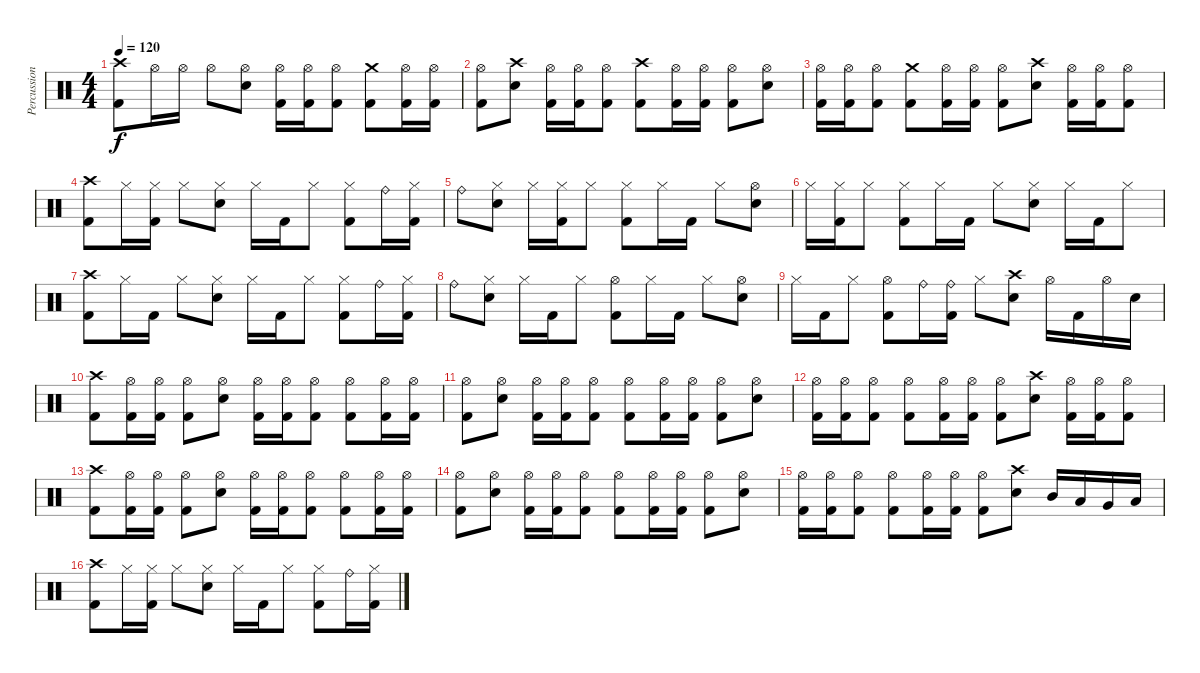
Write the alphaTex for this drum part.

\track ("Percussion" "Percussion") {instrument percussion}
\staff {score}
\articulation defaults
\ts (4 4)
\tempo 120
\clef neutral
\ks c
("Crash high (hit)" "Kick (hit) 2").8{dy f} "Hi-Hat (open)".16 "Hi-Hat (open)".16 "Hi-Hat (open)".8 ("Hi-Hat (open)" "Snare (hit) 2").8 ("Hi-Hat (open)" "Kick (hit) 2").16 ("Hi-Hat (open)" "Kick (hit) 2").16 ("Hi-Hat (open)" "Kick (hit) 2").8 ("Crash medium (hit)" "Kick (hit) 2").8 ("Hi-Hat (open)" "Kick (hit) 2").16 ("Hi-Hat (open)" "Kick (hit) 2").16 |
("Hi-Hat (open)" "Kick (hit) 2").8 ("Crash high (hit)" "Snare (hit) 2").8 ("Hi-Hat (open)" "Kick (hit) 2").16 ("Hi-Hat (open)" "Kick (hit) 2").16 ("Hi-Hat (open)" "Kick (hit) 2").8 ("Crash high (hit)" "Kick (hit) 2").8 ("Hi-Hat (open)" "Kick (hit) 2").16 ("Hi-Hat (open)" "Kick (hit) 2").16 ("Hi-Hat (open)" "Kick (hit) 2").8 ("Hi-Hat (open)" "Snare (hit) 2").8 |
("Hi-Hat (open)" "Kick (hit) 2").16 ("Hi-Hat (open)" "Kick (hit) 2").16 ("Hi-Hat (open)" "Kick (hit) 2").8 ("Crash medium (hit)" "Kick (hit) 2").8 ("Hi-Hat (open)" "Kick (hit) 2").16 ("Hi-Hat (open)" "Kick (hit) 2").16 ("Hi-Hat (open)" "Kick (hit) 2").8 ("Crash high (hit)" "Snare (hit) 2").8 ("Hi-Hat (open)" "Kick (hit) 2").16 ("Hi-Hat (open)" "Kick (hit) 2").16 ("Hi-Hat (open)" "Kick (hit) 2").8 |
("Crash high (hit)" "Kick (hit) 2").8 "Hi-Hat (closed)".16 ("Hi-Hat (closed)" "Kick (hit) 2").16 "Hi-Hat (closed)".8 ("Hi-Hat (closed)" "Snare (hit) 2").8 "Hi-Hat (closed)".16 "Kick (hit) 2".16 "Hi-Hat (closed)".8 ("Hi-Hat (closed)" "Kick (hit) 2").8 "Ride (bell)".16 ("Hi-Hat (closed)" "Kick (hit) 2").16 |
"Ride (bell)".8 ("Hi-Hat (closed)" "Snare (hit) 2").8 "Hi-Hat (closed)".16 ("Hi-Hat (closed)" "Kick (hit) 2").16 "Hi-Hat (closed)".8 ("Hi-Hat (closed)" "Kick (hit) 2").8 "Hi-Hat (closed)".16 "Kick (hit) 2".16 "Hi-Hat (closed)".8 ("Hi-Hat (open)" "Snare (hit) 2").8 |
"Hi-Hat (closed)".16 ("Hi-Hat (closed)" "Kick (hit) 2").16 "Hi-Hat (closed)".8 ("Hi-Hat (closed)" "Kick (hit) 2").8 "Hi-Hat (closed)".16 "Kick (hit) 2".16 "Hi-Hat (closed)".8 ("Hi-Hat (closed)" "Snare (hit) 2").8 "Hi-Hat (closed)".16 "Kick (hit) 2".16 "Hi-Hat (closed)".8 |
("Crash high (hit)" "Kick (hit) 2").8 "Hi-Hat (closed)".16 "Kick (hit) 2".16 "Hi-Hat (closed)".8 ("Hi-Hat (closed)" "Snare (hit) 2").8 "Hi-Hat (closed)".16 "Kick (hit) 2".16 "Hi-Hat (closed)".8 ("Hi-Hat (closed)" "Kick (hit) 2").8 "Ride (bell)".16 ("Hi-Hat (closed)" "Kick (hit) 2").16 |
"Ride (bell)".8 ("Hi-Hat (closed)" "Snare (hit) 2").8 "Hi-Hat (closed)".16 "Kick (hit) 2".16 "Hi-Hat (closed)".8 ("Hi-Hat (open)" "Kick (hit) 2").8 "Hi-Hat (closed)".16 "Kick (hit) 2".16 "Hi-Hat (closed)".8 ("Hi-Hat (open)" "Snare (hit) 2").8 |
"Hi-Hat (closed)".16 "Kick (hit) 2".16 "Hi-Hat (closed)".8 ("Hi-Hat (open)" "Kick (hit) 2").8 "Ride (bell)".16 ("Ride (bell)" "Kick (hit) 2").16 "Hi-Hat (closed)".8 ("Crash high (hit)" "Snare (hit) 2").8 "Hi-Hat (open)".16 "Kick (hit) 2".16 "Hi-Hat (open)".16 "Snare (hit) 2".16 |
("Crash high (hit)" "Kick (hit) 2").8 ("Hi-Hat (open)" "Kick (hit) 2").16 ("Hi-Hat (open)" "Kick (hit) 2").16 ("Hi-Hat (open)" "Kick (hit) 2").8 ("Hi-Hat (open)" "Snare (hit) 2").8 ("Hi-Hat (open)" "Kick (hit) 2").16 ("Hi-Hat (open)" "Kick (hit) 2").16 ("Hi-Hat (open)" "Kick (hit) 2").8 ("Hi-Hat (open)" "Kick (hit) 2").8 ("Hi-Hat (open)" "Kick (hit) 2").16 ("Hi-Hat (open)" "Kick (hit) 2").16 |
("Hi-Hat (open)" "Kick (hit) 2").8 ("Hi-Hat (open)" "Snare (hit) 2").8 ("Hi-Hat (open)" "Kick (hit) 2").16 ("Hi-Hat (open)" "Kick (hit) 2").16 ("Hi-Hat (open)" "Kick (hit) 2").8 ("Hi-Hat (open)" "Kick (hit) 2").8 ("Hi-Hat (open)" "Kick (hit) 2").16 ("Hi-Hat (open)" "Kick (hit) 2").16 ("Hi-Hat (open)" "Kick (hit) 2").8 ("Hi-Hat (open)" "Snare (hit) 2").8 |
("Hi-Hat (open)" "Kick (hit) 2").16 ("Hi-Hat (open)" "Kick (hit) 2").16 ("Hi-Hat (open)" "Kick (hit) 2").8 ("Hi-Hat (open)" "Kick (hit) 2").8 ("Hi-Hat (open)" "Kick (hit) 2").16 ("Hi-Hat (open)" "Kick (hit) 2").16 ("Hi-Hat (open)" "Kick (hit) 2").8 ("Crash high (hit)" "Snare (hit) 2").8 ("Hi-Hat (open)" "Kick (hit) 2").16 ("Hi-Hat (open)" "Kick (hit) 2").16 ("Hi-Hat (open)" "Kick (hit) 2").8 |
("Crash high (hit)" "Kick (hit) 2").8 ("Hi-Hat (open)" "Kick (hit) 2").16 ("Hi-Hat (open)" "Kick (hit) 2").16 ("Hi-Hat (open)" "Kick (hit) 2").8 ("Hi-Hat (open)" "Snare (hit) 2").8 ("Hi-Hat (open)" "Kick (hit) 2").16 ("Hi-Hat (open)" "Kick (hit) 2").16 ("Hi-Hat (open)" "Kick (hit) 2").8 ("Hi-Hat (open)" "Kick (hit) 2").8 ("Hi-Hat (open)" "Kick (hit) 2").16 ("Hi-Hat (open)" "Kick (hit) 2").16 |
("Hi-Hat (open)" "Kick (hit) 2").8 ("Hi-Hat (open)" "Snare (hit) 2").8 ("Hi-Hat (open)" "Kick (hit) 2").16 ("Hi-Hat (open)" "Kick (hit) 2").16 ("Hi-Hat (open)" "Kick (hit) 2").8 ("Hi-Hat (open)" "Kick (hit) 2").8 ("Hi-Hat (open)" "Kick (hit) 2").16 ("Hi-Hat (open)" "Kick (hit) 2").16 ("Hi-Hat (open)" "Kick (hit) 2").8 ("Hi-Hat (open)" "Snare (hit) 2").8 |
("Hi-Hat (open)" "Kick (hit) 2").16 ("Hi-Hat (open)" "Kick (hit) 2").16 ("Hi-Hat (open)" "Kick (hit) 2").8 ("Hi-Hat (open)" "Kick (hit) 2").8 ("Hi-Hat (open)" "Kick (hit) 2").16 ("Hi-Hat (open)" "Kick (hit) 2").16 ("Hi-Hat (open)" "Kick (hit) 2").8 ("Crash high (hit)" "Snare (hit) 2").8 "Mid Tom (hit)".16 "Low Tom (hit)".16 "Very Low Tom (hit)".16 "Low Floor Tom (hit)".16 |
("Crash high (hit)" "Kick (hit) 2").8 "Hi-Hat (closed)".16 ("Hi-Hat (closed)" "Kick (hit) 2").16 "Hi-Hat (closed)".8 ("Hi-Hat (closed)" "Snare (hit) 2").8 "Hi-Hat (closed)".16 "Kick (hit) 2".16 "Hi-Hat (closed)".8 ("Hi-Hat (closed)" "Kick (hit) 2").8 "Ride (bell)".16 ("Hi-Hat (closed)" "Kick (hit) 2").16
